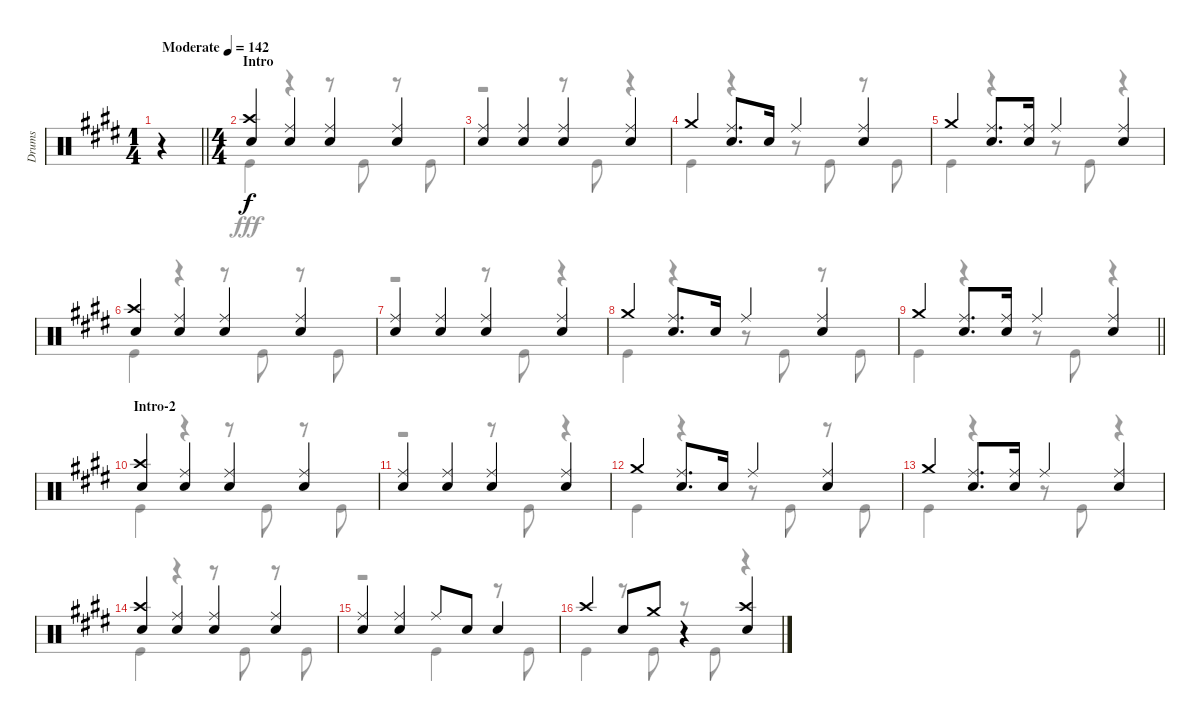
\track ("Drums" "Drums") {instrument percussion}
\staff {score}
\articulation defaults
\voice
\ts (1 4)
\tempo (142 "Moderate")
\clef neutral
\barLineRight lightlight
\ks e
r.4{dy f} |
\ts (4 4)
\section ("" "Intro")
("Crash high (hit)" "Snare (hit) 2").4 ("Ride (middle)" "Snare (hit) 2").4 ("Ride (middle)" "Snare (hit) 2").4 ("Ride (middle)" "Snare (hit) 2").4 |
("Ride (middle)" "Snare (hit) 2").4 ("Ride (middle)" "Snare (hit) 2").4 ("Ride (middle)" "Snare (hit) 2").4 ("Ride (middle)" "Snare (hit) 2").4 |
"Crash medium (hit)".4 ("Ride (middle)" "Snare (hit) 2").8{d} "Snare (hit) 2".16 "Ride (middle)".4 ("Ride (middle)" "Snare (hit) 2").4 |
"Crash medium (hit)".4 ("Ride (middle)" "Snare (hit) 2").8{d} ("Ride (middle)" "Snare (hit) 2").16 "Ride (middle)".4 ("Ride (middle)" "Snare (hit) 2").4 |
("Crash high (hit)" "Snare (hit) 2").4 ("Ride (middle)" "Snare (hit) 2").4 ("Ride (middle)" "Snare (hit) 2").4 ("Ride (middle)" "Snare (hit) 2").4 |
("Ride (middle)" "Snare (hit) 2").4 ("Ride (middle)" "Snare (hit) 2").4 ("Ride (middle)" "Snare (hit) 2").4 ("Ride (middle)" "Snare (hit) 2").4 |
"Crash medium (hit)".4 ("Ride (middle)" "Snare (hit) 2").8{d} "Snare (hit) 2".16 "Ride (middle)".4 ("Ride (middle)" "Snare (hit) 2").4 |
\barLineRight lightlight "Crash medium (hit)".4
("Ride (middle)" "Snare (hit) 2").8{d} ("Ride (middle)" "Snare (hit) 2").16 "Ride (middle)".4 ("Ride (middle)" "Snare (hit) 2").4 |
\section ("" "Intro-2")
("Crash high (hit)" "Snare (hit) 2").4 ("Ride (middle)" "Snare (hit) 2").4 ("Ride (middle)" "Snare (hit) 2").4 ("Ride (middle)" "Snare (hit) 2").4 |
("Ride (middle)" "Snare (hit) 2").4 ("Ride (middle)" "Snare (hit) 2").4 ("Ride (middle)" "Snare (hit) 2").4 ("Ride (middle)" "Snare (hit) 2").4 |
"Crash medium (hit)".4 ("Ride (middle)" "Snare (hit) 2").8{d} "Snare (hit) 2".16 "Ride (middle)".4 ("Ride (middle)" "Snare (hit) 2").4 |
"Crash medium (hit)".4 ("Ride (middle)" "Snare (hit) 2").8{d} ("Ride (middle)" "Snare (hit) 2").16 "Ride (middle)".4 ("Ride (middle)" "Snare (hit) 2").4 |
("Crash high (hit)" "Snare (hit) 2").4 ("Ride (middle)" "Snare (hit) 2").4 ("Ride (middle)" "Snare (hit) 2").4 ("Ride (middle)" "Snare (hit) 2").4 |
("Ride (middle)" "Snare (hit) 2").4 ("Ride (middle)" "Snare (hit) 2").4 "Ride (middle)".8 "Snare (hit) 2".8 "Snare (hit) 2".4 |
"Crash high (hit)".4 "Snare (hit) 2".8 "Crash medium (hit)".8 r.4 ("Crash high (hit)" "Snare (hit) 2").4
\voice
\clef neutral
\ottava regular
\simile none
\barLineRight lightlight
\ks e
r.4{dy fff} |
"Kick (hit)".4 r.4 r.8 "Kick (hit)".8 r.8 "Kick (hit)".8 |
r.2 r.8 "Kick (hit)".8 r.4 |
"Kick (hit)".4 r.4 r.8 "Kick (hit)".8 r.8 "Kick (hit)".8 |
"Kick (hit)".4 r.4 r.8 "Kick (hit)".8 r.4 |
"Kick (hit)".4 r.4 r.8 "Kick (hit)".8 r.8 "Kick (hit)".8 |
r.2 r.8 "Kick (hit)".8 r.4 |
"Kick (hit)".4 r.4 r.8 "Kick (hit)".8 r.8 "Kick (hit)".8 |
\barLineRight lightlight "Kick (hit)".4
r.4 r.8 "Kick (hit)".8 r.4 |
"Kick (hit)".4 r.4 r.8 "Kick (hit)".8 r.8 "Kick (hit)".8 |
r.2 r.8 "Kick (hit)".8 r.4 |
"Kick (hit)".4 r.4 r.8 "Kick (hit)".8 r.8 "Kick (hit)".8 |
"Kick (hit)".4 r.4 r.8 "Kick (hit)".8 r.4 |
"Kick (hit)".4 r.4 r.8 "Kick (hit)".8 r.8 "Kick (hit)".8 |
r.2 "Kick (hit)".4 r.8 "Kick (hit)".8 |
"Kick (hit)".4 r.8 "Kick (hit)".8 r.8 "Kick (hit)".8 r.4
